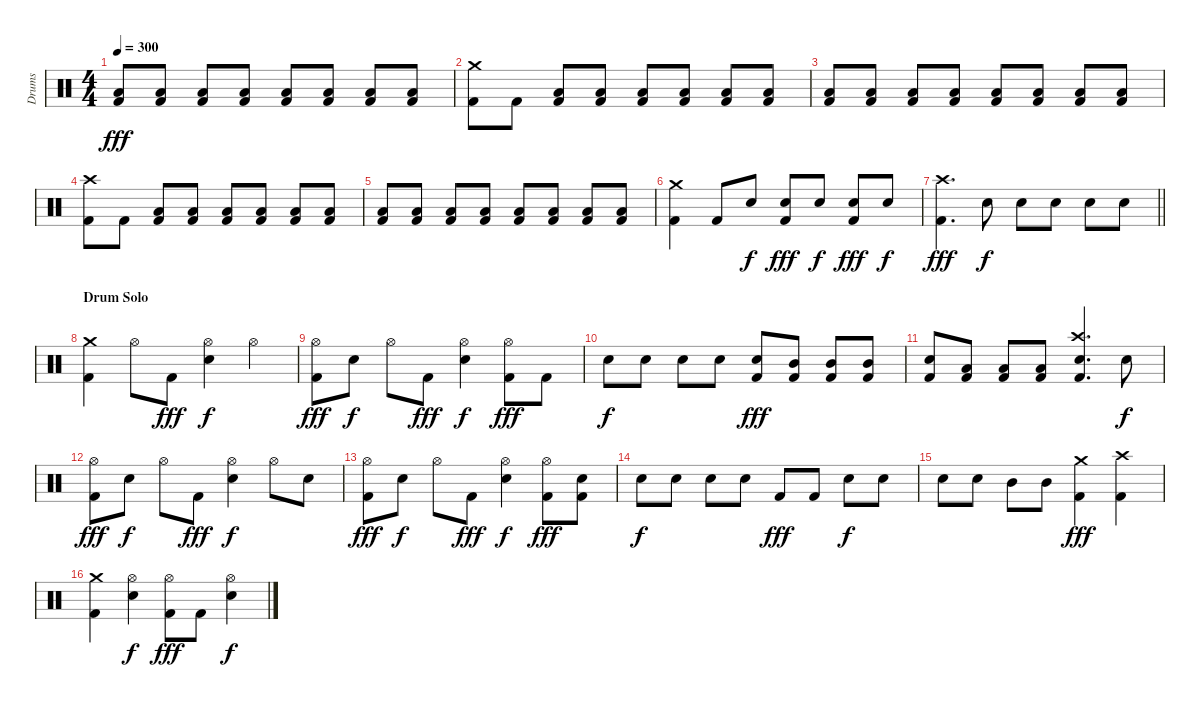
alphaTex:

\track ("Drums" "Drums") {instrument percussion}
\staff {score}
\articulation defaults
\ts (4 4)
\tempo 300
\clef neutral
\ks c
("Low Floor Tom (hit)" "Kick (hit) 2").8{dy fff} ("Low Floor Tom (hit)" "Kick (hit) 2").8 ("Low Floor Tom (hit)" "Kick (hit) 2").8 ("Low Floor Tom (hit)" "Kick (hit) 2").8 ("Low Floor Tom (hit)" "Kick (hit) 2").8 ("Low Floor Tom (hit)" "Kick (hit) 2").8 ("Low Floor Tom (hit)" "Kick (hit) 2").8 ("Low Floor Tom (hit)" "Kick (hit) 2").8 |
("Crash medium (hit)" "Kick (hit) 2").8 "Kick (hit) 2".8 ("Low Floor Tom (hit)" "Kick (hit) 2").8 ("Low Floor Tom (hit)" "Kick (hit) 2").8 ("Low Floor Tom (hit)" "Kick (hit) 2").8 ("Low Floor Tom (hit)" "Kick (hit) 2").8 ("Low Floor Tom (hit)" "Kick (hit) 2").8 ("Low Floor Tom (hit)" "Kick (hit) 2").8 |
("Low Floor Tom (hit)" "Kick (hit) 2").8 ("Low Floor Tom (hit)" "Kick (hit) 2").8 ("Low Floor Tom (hit)" "Kick (hit) 2").8 ("Low Floor Tom (hit)" "Kick (hit) 2").8 ("Low Floor Tom (hit)" "Kick (hit) 2").8 ("Low Floor Tom (hit)" "Kick (hit) 2").8 ("Low Floor Tom (hit)" "Kick (hit) 2").8 ("Low Floor Tom (hit)" "Kick (hit) 2").8 |
("Crash high (hit)" "Kick (hit) 2").8 "Kick (hit) 2".8 ("Low Floor Tom (hit)" "Kick (hit) 2").8 ("Low Floor Tom (hit)" "Kick (hit) 2").8 ("Low Floor Tom (hit)" "Kick (hit) 2").8 ("Low Floor Tom (hit)" "Kick (hit) 2").8 ("Low Floor Tom (hit)" "Kick (hit) 2").8 ("Low Floor Tom (hit)" "Kick (hit) 2").8 |
("Low Floor Tom (hit)" "Kick (hit) 2").8 ("Low Floor Tom (hit)" "Kick (hit) 2").8 ("Low Floor Tom (hit)" "Kick (hit) 2").8 ("Low Floor Tom (hit)" "Kick (hit) 2").8 ("Low Floor Tom (hit)" "Kick (hit) 2").8 ("Low Floor Tom (hit)" "Kick (hit) 2").8 ("Low Floor Tom (hit)" "Kick (hit) 2").8 ("Low Floor Tom (hit)" "Kick (hit) 2").8 |
("Crash medium (hit)" "Kick (hit) 2").4 "Kick (hit) 2".8 "Snare (hit) 2".8{dy f} ("Snare (hit) 2" "Kick (hit) 2").8{dy fff} "Snare (hit) 2".8{dy f} ("Snare (hit) 2" "Kick (hit) 2").8{dy fff} "Snare (hit) 2".8{dy f} |
\barLineRight lightlight
("Crash high (hit)" "Kick (hit) 2").4{d dy fff} "Snare (hit) 2".8{dy f} "Snare (hit) 2".8 "Snare (hit) 2".8 "Snare (hit) 2".8 "Snare (hit) 2".8 |
\section ("" "Drum Solo")
("Crash medium (hit)" "Kick (hit) 2").4 "Hi-Hat (open)".8 "Kick (hit) 2".8{dy fff} ("Hi-Hat (open)" "Snare (hit) 2").4{dy f} "Hi-Hat (open)".4 |
("Hi-Hat (open)" "Kick (hit) 2").8{dy fff} "Snare (hit) 2".8{dy f} "Hi-Hat (open)".8 "Kick (hit) 2".8{dy fff} ("Hi-Hat (open)" "Snare (hit) 2").4{dy f} ("Hi-Hat (open)" "Kick (hit) 2").8{dy fff} "Kick (hit) 2".8 |
"Snare (hit) 2".8{dy f} "Snare (hit) 2".8 "Snare (hit) 2".8 "Snare (hit) 2".8 ("Snare (hit) 2" "Kick (hit) 2").8{dy fff} ("Mid Tom (hit)" "Kick (hit) 2").8 ("Mid Tom (hit)" "Kick (hit) 2").8 ("Mid Tom (hit)" "Kick (hit) 2").8 |
("Snare (hit) 2" "Kick (hit) 2").8 ("Low Tom (hit)" "Kick (hit) 2").8 ("Low Tom (hit)" "Kick (hit) 2").8 ("Low Tom (hit)" "Kick (hit) 2").8 ("Crash high (hit)" "Snare (hit) 2" "Kick (hit) 2").4{d} "Snare (hit) 2".8{dy f} |
("Hi-Hat (open)" "Kick (hit) 2").8{dy fff} "Snare (hit) 2".8{dy f} "Hi-Hat (open)".8 "Kick (hit) 2".8{dy fff} ("Hi-Hat (open)" "Snare (hit) 2").4{dy f} "Hi-Hat (open)".8 "Snare (hit) 2".8 |
("Hi-Hat (open)" "Kick (hit) 2").8{dy fff} "Snare (hit) 2".8{dy f} "Hi-Hat (open)".8 "Kick (hit) 2".8{dy fff} ("Hi-Hat (open)" "Snare (hit) 2").4{dy f} ("Hi-Hat (open)" "Kick (hit) 2").8{dy fff} ("Snare (hit) 2" "Kick (hit) 2").8 |
"Snare (hit) 2".8{dy f} "Snare (hit) 2".8 "Snare (hit) 2".8 "Snare (hit) 2".8 "Kick (hit) 2".8{dy fff} "Kick (hit) 2".8 "Snare (hit) 2".8{dy f} "Snare (hit) 2".8 |
"Snare (hit) 2".8 "Snare (hit) 2".8 "Mid Tom (hit)".8 "Mid Tom (hit)".8 ("Crash medium (hit)" "Kick (hit) 2").4{dy fff} ("Crash high (hit)" "Kick (hit) 2").4 |
("Crash medium (hit)" "Kick (hit) 2").4 ("Hi-Hat (open)" "Snare (hit) 2").4{dy f} ("Hi-Hat (open)" "Kick (hit) 2").8{dy fff} "Kick (hit) 2".8 ("Hi-Hat (open)" "Snare (hit) 2").4{dy f}
